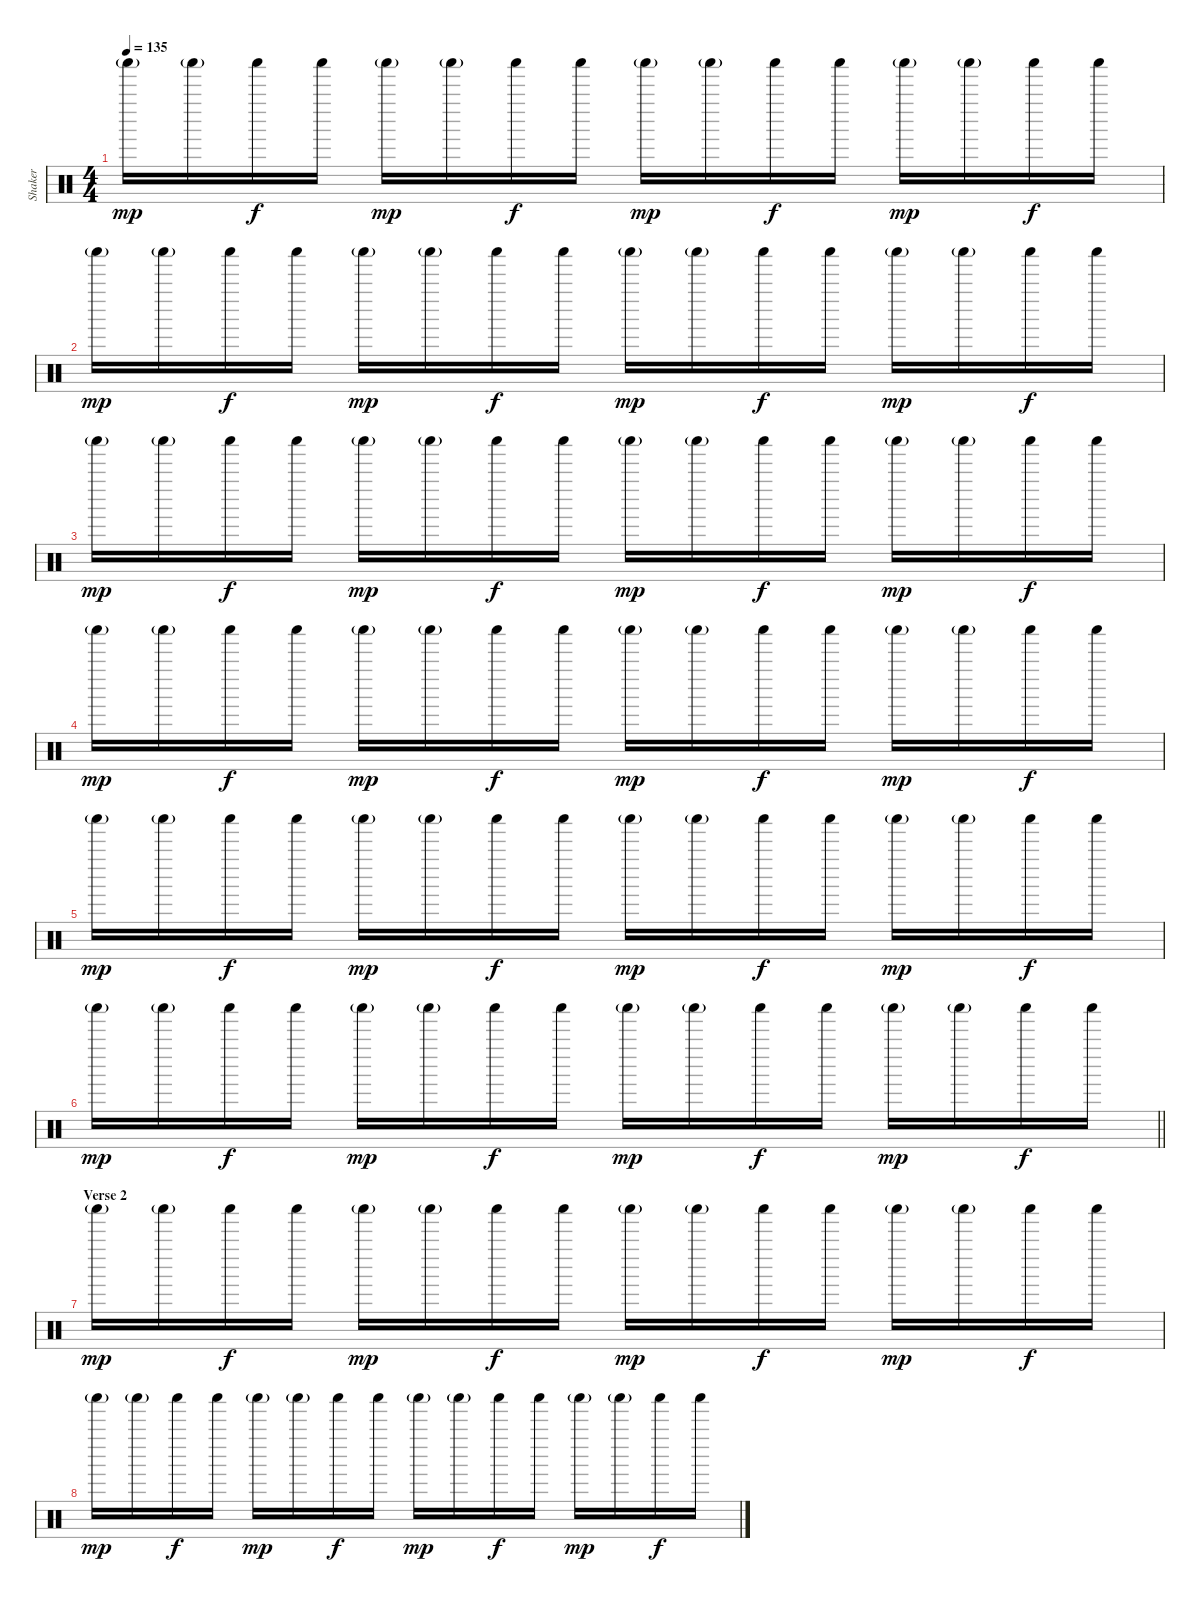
\track ("Shaker" "Shaker") {instrument percussion}
\staff {score}
\articulation defaults
\ts (4 4)
\tempo 135
\clef neutral
\ks c "Shaker (hit)"{g}.16{dy mp} "Shaker (hit)"{g}.16 "Shaker (hit)".16{dy f} "Shaker (hit)".16 "Shaker (hit)"{g}.16{dy mp} "Shaker (hit)"{g}.16 "Shaker (hit)".16{dy f} "Shaker (hit)".16 "Shaker (hit)"{g}.16{dy mp} "Shaker (hit)"{g}.16 "Shaker (hit)".16{dy f} "Shaker (hit)".16 "Shaker (hit)"{g}.16{dy mp} "Shaker (hit)"{g}.16 "Shaker (hit)".16{dy f} "Shaker (hit)".16
|
"Shaker (hit)"{g}.16{dy mp} "Shaker (hit)"{g}.16 "Shaker (hit)".16{dy f} "Shaker (hit)".16 "Shaker (hit)"{g}.16{dy mp} "Shaker (hit)"{g}.16 "Shaker (hit)".16{dy f} "Shaker (hit)".16 "Shaker (hit)"{g}.16{dy mp} "Shaker (hit)"{g}.16 "Shaker (hit)".16{dy f} "Shaker (hit)".16 "Shaker (hit)"{g}.16{dy mp} "Shaker (hit)"{g}.16 "Shaker (hit)".16{dy f} "Shaker (hit)".16 |
"Shaker (hit)"{g}.16{dy mp} "Shaker (hit)"{g}.16 "Shaker (hit)".16{dy f} "Shaker (hit)".16 "Shaker (hit)"{g}.16{dy mp} "Shaker (hit)"{g}.16 "Shaker (hit)".16{dy f} "Shaker (hit)".16 "Shaker (hit)"{g}.16{dy mp} "Shaker (hit)"{g}.16 "Shaker (hit)".16{dy f} "Shaker (hit)".16 "Shaker (hit)"{g}.16{dy mp} "Shaker (hit)"{g}.16 "Shaker (hit)".16{dy f} "Shaker (hit)".16 |
"Shaker (hit)"{g}.16{dy mp} "Shaker (hit)"{g}.16 "Shaker (hit)".16{dy f} "Shaker (hit)".16 "Shaker (hit)"{g}.16{dy mp} "Shaker (hit)"{g}.16 "Shaker (hit)".16{dy f} "Shaker (hit)".16 "Shaker (hit)"{g}.16{dy mp} "Shaker (hit)"{g}.16 "Shaker (hit)".16{dy f} "Shaker (hit)".16 "Shaker (hit)"{g}.16{dy mp} "Shaker (hit)"{g}.16 "Shaker (hit)".16{dy f} "Shaker (hit)".16 |
"Shaker (hit)"{g}.16{dy mp} "Shaker (hit)"{g}.16 "Shaker (hit)".16{dy f} "Shaker (hit)".16 "Shaker (hit)"{g}.16{dy mp} "Shaker (hit)"{g}.16 "Shaker (hit)".16{dy f} "Shaker (hit)".16 "Shaker (hit)"{g}.16{dy mp} "Shaker (hit)"{g}.16 "Shaker (hit)".16{dy f} "Shaker (hit)".16 "Shaker (hit)"{g}.16{dy mp} "Shaker (hit)"{g}.16 "Shaker (hit)".16{dy f} "Shaker (hit)".16 |
\barLineRight lightlight "Shaker (hit)"{g}.16{dy mp} "Shaker (hit)"{g}.16 "Shaker (hit)".16{dy f} "Shaker (hit)".16 "Shaker (hit)"{g}.16{dy mp} "Shaker (hit)"{g}.16 "Shaker (hit)".16{dy f} "Shaker (hit)".16 "Shaker (hit)"{g}.16{dy mp} "Shaker (hit)"{g}.16 "Shaker (hit)".16{dy f} "Shaker (hit)".16 "Shaker (hit)"{g}.16{dy mp} "Shaker (hit)"{g}.16 "Shaker (hit)".16{dy f} "Shaker (hit)".16
|
\section ("" "Verse 2")
"Shaker (hit)"{g}.16{dy mp} "Shaker (hit)"{g}.16 "Shaker (hit)".16{dy f} "Shaker (hit)".16 "Shaker (hit)"{g}.16{dy mp} "Shaker (hit)"{g}.16 "Shaker (hit)".16{dy f} "Shaker (hit)".16 "Shaker (hit)"{g}.16{dy mp} "Shaker (hit)"{g}.16 "Shaker (hit)".16{dy f} "Shaker (hit)".16 "Shaker (hit)"{g}.16{dy mp} "Shaker (hit)"{g}.16 "Shaker (hit)".16{dy f} "Shaker (hit)".16 |
"Shaker (hit)"{g}.16{dy mp} "Shaker (hit)"{g}.16 "Shaker (hit)".16{dy f} "Shaker (hit)".16 "Shaker (hit)"{g}.16{dy mp} "Shaker (hit)"{g}.16 "Shaker (hit)".16{dy f} "Shaker (hit)".16 "Shaker (hit)"{g}.16{dy mp} "Shaker (hit)"{g}.16 "Shaker (hit)".16{dy f} "Shaker (hit)".16 "Shaker (hit)"{g}.16{dy mp} "Shaker (hit)"{g}.16 "Shaker (hit)".16{dy f} "Shaker (hit)".16
